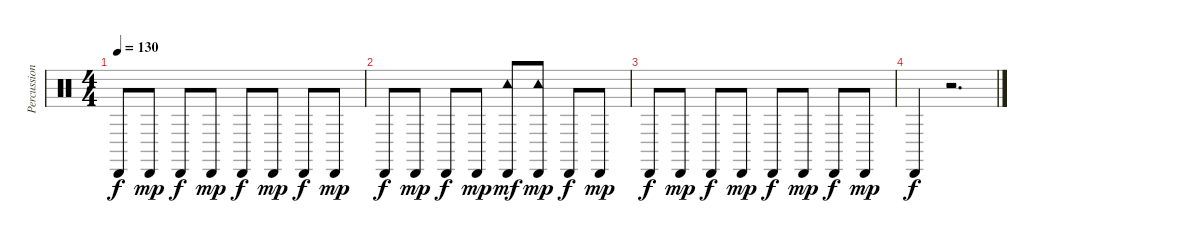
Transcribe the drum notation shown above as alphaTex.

\track ("Percussion" "Percussion") {instrument percussion}
\staff {score}
\articulation defaults
\ts (4 4)
\tempo 130
\clef neutral
\ks c "Cabasa (hit)".8{dy f} "Cabasa (hit)".8{dy mp} "Cabasa (hit)".8{dy f} "Cabasa (hit)".8{dy mp} "Cabasa (hit)".8{dy f} "Cabasa (hit)".8{dy mp} "Cabasa (hit)".8{dy f} "Cabasa (hit)".8{dy mp}
|
"Cabasa (hit)".8{dy f} "Cabasa (hit)".8{dy mp} "Cabasa (hit)".8{dy f} "Cabasa (hit)".8{dy mp} ("Tambourine (hit)" "Cabasa (hit)").8{dy mf} ("Tambourine (hit)" "Cabasa (hit)").8{dy mp} "Cabasa (hit)".8{dy f} "Cabasa (hit)".8{dy mp} |
"Cabasa (hit)".8{dy f} "Cabasa (hit)".8{dy mp} "Cabasa (hit)".8{dy f} "Cabasa (hit)".8{dy mp} "Cabasa (hit)".8{dy f} "Cabasa (hit)".8{dy mp} "Cabasa (hit)".8{dy f} "Cabasa (hit)".8{dy mp} |
"Cabasa (hit)".4{dy f} r.2{d}
